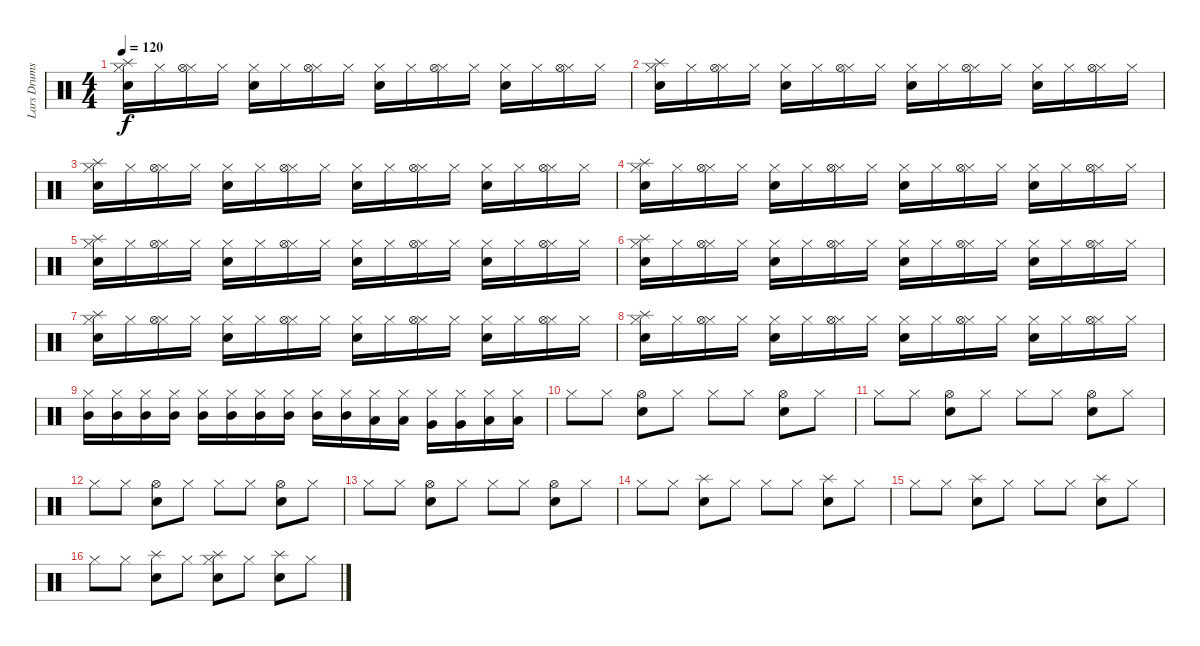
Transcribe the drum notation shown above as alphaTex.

\track ("Lars Drums" "Lars Drums") {instrument percussion}
\staff {score}
\articulation defaults
\ts (4 4)
\tempo 120
\clef neutral
\ks c
("Hi-Hat (closed)" "Snare (hit) 2" "Splash (hit)").16{dy f} "Hi-Hat (closed)".16 ("Hi-Hat (closed)" "Hi-Hat (open)").16 "Hi-Hat (closed)".16 ("Hi-Hat (closed)" "Snare (hit) 2").16 "Hi-Hat (closed)".16 ("Hi-Hat (closed)" "Hi-Hat (open)").16 "Hi-Hat (closed)".16 ("Hi-Hat (closed)" "Snare (hit) 2").16 "Hi-Hat (closed)".16 ("Hi-Hat (closed)" "Hi-Hat (open)").16 "Hi-Hat (closed)".16 ("Hi-Hat (closed)" "Snare (hit) 2").16 "Hi-Hat (closed)".16 ("Hi-Hat (closed)" "Hi-Hat (open)").16 "Hi-Hat (closed)".16 |
("Hi-Hat (closed)" "Snare (hit) 2" "Splash (hit)").16 "Hi-Hat (closed)".16 ("Hi-Hat (closed)" "Hi-Hat (open)").16 "Hi-Hat (closed)".16 ("Hi-Hat (closed)" "Snare (hit) 2").16 "Hi-Hat (closed)".16 ("Hi-Hat (closed)" "Hi-Hat (open)").16 "Hi-Hat (closed)".16 ("Hi-Hat (closed)" "Snare (hit) 2").16 "Hi-Hat (closed)".16 ("Hi-Hat (closed)" "Hi-Hat (open)").16 "Hi-Hat (closed)".16 ("Hi-Hat (closed)" "Snare (hit) 2").16 "Hi-Hat (closed)".16 ("Hi-Hat (closed)" "Hi-Hat (open)").16 "Hi-Hat (closed)".16 |
("Hi-Hat (closed)" "Snare (hit) 2" "Splash (hit)").16 "Hi-Hat (closed)".16 ("Hi-Hat (closed)" "Hi-Hat (open)").16 "Hi-Hat (closed)".16 ("Hi-Hat (closed)" "Snare (hit) 2").16 "Hi-Hat (closed)".16 ("Hi-Hat (closed)" "Hi-Hat (open)").16 "Hi-Hat (closed)".16 ("Hi-Hat (closed)" "Snare (hit) 2").16 "Hi-Hat (closed)".16 ("Hi-Hat (closed)" "Hi-Hat (open)").16 "Hi-Hat (closed)".16 ("Hi-Hat (closed)" "Snare (hit) 2").16 "Hi-Hat (closed)".16 ("Hi-Hat (closed)" "Hi-Hat (open)").16 "Hi-Hat (closed)".16 |
("Hi-Hat (closed)" "Snare (hit) 2" "Splash (hit)").16 "Hi-Hat (closed)".16 ("Hi-Hat (closed)" "Hi-Hat (open)").16 "Hi-Hat (closed)".16 ("Hi-Hat (closed)" "Snare (hit) 2").16 "Hi-Hat (closed)".16 ("Hi-Hat (closed)" "Hi-Hat (open)").16 "Hi-Hat (closed)".16 ("Hi-Hat (closed)" "Snare (hit) 2").16 "Hi-Hat (closed)".16 ("Hi-Hat (closed)" "Hi-Hat (open)").16 "Hi-Hat (closed)".16 ("Hi-Hat (closed)" "Snare (hit) 2").16 "Hi-Hat (closed)".16 ("Hi-Hat (closed)" "Hi-Hat (open)").16 "Hi-Hat (closed)".16 |
("Hi-Hat (closed)" "Snare (hit) 2" "Splash (hit)").16 "Hi-Hat (closed)".16 ("Hi-Hat (closed)" "Hi-Hat (open)").16 "Hi-Hat (closed)".16 ("Hi-Hat (closed)" "Snare (hit) 2").16 "Hi-Hat (closed)".16 ("Hi-Hat (closed)" "Hi-Hat (open)").16 "Hi-Hat (closed)".16 ("Hi-Hat (closed)" "Snare (hit) 2").16 "Hi-Hat (closed)".16 ("Hi-Hat (closed)" "Hi-Hat (open)").16 "Hi-Hat (closed)".16 ("Hi-Hat (closed)" "Snare (hit) 2").16 "Hi-Hat (closed)".16 ("Hi-Hat (closed)" "Hi-Hat (open)").16 "Hi-Hat (closed)".16 |
("Hi-Hat (closed)" "Snare (hit) 2" "Splash (hit)").16 "Hi-Hat (closed)".16 ("Hi-Hat (closed)" "Hi-Hat (open)").16 "Hi-Hat (closed)".16 ("Hi-Hat (closed)" "Snare (hit) 2").16 "Hi-Hat (closed)".16 ("Hi-Hat (closed)" "Hi-Hat (open)").16 "Hi-Hat (closed)".16 ("Hi-Hat (closed)" "Snare (hit) 2").16 "Hi-Hat (closed)".16 ("Hi-Hat (closed)" "Hi-Hat (open)").16 "Hi-Hat (closed)".16 ("Hi-Hat (closed)" "Snare (hit) 2").16 "Hi-Hat (closed)".16 ("Hi-Hat (closed)" "Hi-Hat (open)").16 "Hi-Hat (closed)".16 |
("Hi-Hat (closed)" "Snare (hit) 2" "Splash (hit)").16 "Hi-Hat (closed)".16 ("Hi-Hat (closed)" "Hi-Hat (open)").16 "Hi-Hat (closed)".16 ("Hi-Hat (closed)" "Snare (hit) 2").16 "Hi-Hat (closed)".16 ("Hi-Hat (closed)" "Hi-Hat (open)").16 "Hi-Hat (closed)".16 ("Hi-Hat (closed)" "Snare (hit) 2").16 "Hi-Hat (closed)".16 ("Hi-Hat (closed)" "Hi-Hat (open)").16 "Hi-Hat (closed)".16 ("Hi-Hat (closed)" "Snare (hit) 2").16 "Hi-Hat (closed)".16 ("Hi-Hat (closed)" "Hi-Hat (open)").16 "Hi-Hat (closed)".16 |
("Hi-Hat (closed)" "Snare (hit) 2" "Splash (hit)").16 "Hi-Hat (closed)".16 ("Hi-Hat (closed)" "Hi-Hat (open)").16 "Hi-Hat (closed)".16 ("Hi-Hat (closed)" "Snare (hit) 2").16 "Hi-Hat (closed)".16 ("Hi-Hat (closed)" "Hi-Hat (open)").16 "Hi-Hat (closed)".16 ("Hi-Hat (closed)" "Snare (hit) 2").16 "Hi-Hat (closed)".16 ("Hi-Hat (closed)" "Hi-Hat (open)").16 "Hi-Hat (closed)".16 ("Hi-Hat (closed)" "Snare (hit) 2").16 "Hi-Hat (closed)".16 ("Hi-Hat (closed)" "Hi-Hat (open)").16 "Hi-Hat (closed)".16 |
("Hi-Hat (closed)" "Mid Tom (hit)").16 ("Hi-Hat (closed)" "Mid Tom (hit)").16 ("Hi-Hat (closed)" "Mid Tom (hit)").16 ("Hi-Hat (closed)" "Mid Tom (hit)").16 ("Hi-Hat (closed)" "Mid Tom (hit)").16 ("Hi-Hat (closed)" "Mid Tom (hit)").16 ("Hi-Hat (closed)" "Mid Tom (hit)").16 ("Hi-Hat (closed)" "Mid Tom (hit)").16 ("Hi-Hat (closed)" "Mid Tom (hit)").16 ("Hi-Hat (closed)" "Mid Tom (hit)").16 ("Hi-Hat (closed)" "Low Tom (hit)").16 ("Hi-Hat (closed)" "Low Tom (hit)").16 ("Hi-Hat (closed)" "Very Low Tom (hit)").16 ("Hi-Hat (closed)" "Very Low Tom (hit)").16 ("Hi-Hat (closed)" "Low Floor Tom (hit)").16 ("Hi-Hat (closed)" "Low Floor Tom (hit)").16 |
"Hi-Hat (closed)".8 "Hi-Hat (closed)".8 ("Snare (hit) 2" "Hi-Hat (open)").8 "Hi-Hat (closed)".8 "Hi-Hat (closed)".8 "Hi-Hat (closed)".8 ("Snare (hit) 2" "Hi-Hat (open)").8 "Hi-Hat (closed)".8 |
"Hi-Hat (closed)".8 "Hi-Hat (closed)".8 ("Snare (hit) 2" "Hi-Hat (open)").8 "Hi-Hat (closed)".8 "Hi-Hat (closed)".8 "Hi-Hat (closed)".8 ("Snare (hit) 2" "Hi-Hat (open)").8 "Hi-Hat (closed)".8 |
"Hi-Hat (closed)".8 "Hi-Hat (closed)".8 ("Snare (hit) 2" "Hi-Hat (open)").8 "Hi-Hat (closed)".8 "Hi-Hat (closed)".8 "Hi-Hat (closed)".8 ("Snare (hit) 2" "Hi-Hat (open)").8 "Hi-Hat (closed)".8 |
"Hi-Hat (closed)".8 "Hi-Hat (closed)".8 ("Snare (hit) 2" "Hi-Hat (open)").8 "Hi-Hat (closed)".8 "Hi-Hat (closed)".8 "Hi-Hat (closed)".8 ("Snare (hit) 2" "Hi-Hat (open)").8 "Hi-Hat (closed)".8 |
"Hi-Hat (closed)".8 "Hi-Hat (closed)".8 ("Snare (hit) 2" "Splash (hit)").8 "Hi-Hat (closed)".8 "Hi-Hat (closed)".8 "Hi-Hat (closed)".8 ("Snare (hit) 2" "Splash (hit)").8 "Hi-Hat (closed)".8 |
"Hi-Hat (closed)".8 "Hi-Hat (closed)".8 ("Snare (hit) 2" "Splash (hit)").8 "Hi-Hat (closed)".8 "Hi-Hat (closed)".8 "Hi-Hat (closed)".8 ("Snare (hit) 2" "Splash (hit)").8 "Hi-Hat (closed)".8 |
"Hi-Hat (closed)".8 "Hi-Hat (closed)".8 ("Snare (hit) 2" "Splash (hit)").8 "Hi-Hat (closed)".8 ("Splash (hit)" "Hi-Hat (closed)" "Snare (hit) 2").8 "Hi-Hat (closed)".8 ("Snare (hit) 2" "Splash (hit)").8 "Hi-Hat (closed)".8
